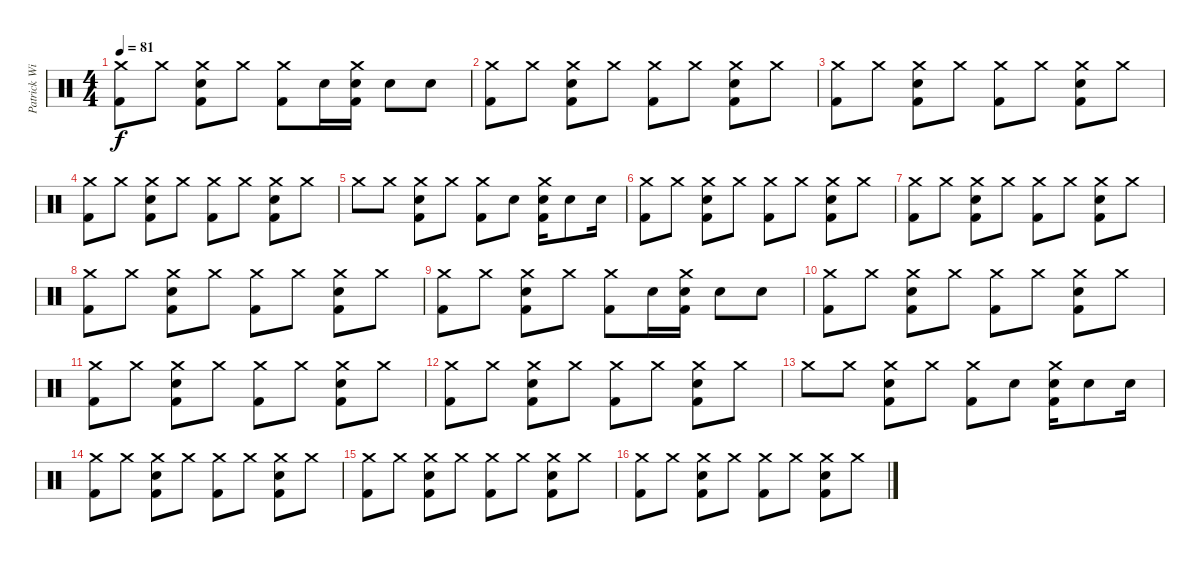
\track ("Patrick Wilson" "Patrick Wi") {instrument percussion}
\staff {score}
\articulation defaults
\ts (4 4)
\tempo 81
\clef neutral
\ks c
("Crash medium (hit)" "Kick (hit) 2").8{dy f} "Crash medium (hit)".8 ("Crash medium (hit)" "Electric Snare (hit)" "Kick (hit) 2").8 "Crash medium (hit)".8 ("Crash medium (hit)" "Kick (hit) 2").8 "Electric Snare (hit)".16 ("Crash medium (hit)" "Electric Snare (hit)" "Kick (hit) 2").16 "Electric Snare (hit)".8 "Electric Snare (hit)".8 |
("Crash medium (hit)" "Kick (hit) 2").8 "Crash medium (hit)".8 ("Crash medium (hit)" "Electric Snare (hit)" "Kick (hit) 2").8 "Crash medium (hit)".8 ("Crash medium (hit)" "Kick (hit) 2").8 "Crash medium (hit)".8 ("Crash medium (hit)" "Electric Snare (hit)" "Kick (hit) 2").8 "Crash medium (hit)".8 |
("Crash medium (hit)" "Kick (hit) 2").8 "Crash medium (hit)".8 ("Crash medium (hit)" "Electric Snare (hit)" "Kick (hit) 2").8 "Crash medium (hit)".8 ("Crash medium (hit)" "Kick (hit) 2").8 "Crash medium (hit)".8 ("Crash medium (hit)" "Electric Snare (hit)" "Kick (hit) 2").8 "Crash medium (hit)".8 |
("Crash medium (hit)" "Kick (hit) 2").8 "Crash medium (hit)".8 ("Crash medium (hit)" "Electric Snare (hit)" "Kick (hit) 2").8 "Crash medium (hit)".8 ("Crash medium (hit)" "Kick (hit) 2").8 "Crash medium (hit)".8 ("Crash medium (hit)" "Electric Snare (hit)" "Kick (hit) 2").8 "Crash medium (hit)".8 |
"Crash medium (hit)".8 "Crash medium (hit)".8 ("Crash medium (hit)" "Electric Snare (hit)" "Kick (hit) 2").8 "Crash medium (hit)".8 ("Crash medium (hit)" "Kick (hit) 2").8 "Electric Snare (hit)".8 ("Crash medium (hit)" "Electric Snare (hit)" "Kick (hit) 2").16 "Electric Snare (hit)".8 "Electric Snare (hit)".16 |
("Crash medium (hit)" "Kick (hit) 2").8 "Crash medium (hit)".8 ("Crash medium (hit)" "Electric Snare (hit)" "Kick (hit) 2").8 "Crash medium (hit)".8 ("Crash medium (hit)" "Kick (hit) 2").8 "Crash medium (hit)".8 ("Crash medium (hit)" "Electric Snare (hit)" "Kick (hit) 2").8 "Crash medium (hit)".8 |
("Crash medium (hit)" "Kick (hit) 2").8 "Crash medium (hit)".8 ("Crash medium (hit)" "Electric Snare (hit)" "Kick (hit) 2").8 "Crash medium (hit)".8 ("Crash medium (hit)" "Kick (hit) 2").8 "Crash medium (hit)".8 ("Crash medium (hit)" "Electric Snare (hit)" "Kick (hit) 2").8 "Crash medium (hit)".8 |
("Crash medium (hit)" "Kick (hit) 2").8 "Crash medium (hit)".8 ("Crash medium (hit)" "Electric Snare (hit)" "Kick (hit) 2").8 "Crash medium (hit)".8 ("Crash medium (hit)" "Kick (hit) 2").8 "Crash medium (hit)".8 ("Crash medium (hit)" "Electric Snare (hit)" "Kick (hit) 2").8 "Crash medium (hit)".8 |
("Crash medium (hit)" "Kick (hit) 2").8 "Crash medium (hit)".8 ("Crash medium (hit)" "Electric Snare (hit)" "Kick (hit) 2").8 "Crash medium (hit)".8 ("Crash medium (hit)" "Kick (hit) 2").8 "Electric Snare (hit)".16 ("Crash medium (hit)" "Electric Snare (hit)" "Kick (hit) 2").16 "Electric Snare (hit)".8 "Electric Snare (hit)".8 |
("Crash medium (hit)" "Kick (hit) 2").8 "Crash medium (hit)".8 ("Crash medium (hit)" "Electric Snare (hit)" "Kick (hit) 2").8 "Crash medium (hit)".8 ("Crash medium (hit)" "Kick (hit) 2").8 "Crash medium (hit)".8 ("Crash medium (hit)" "Electric Snare (hit)" "Kick (hit) 2").8 "Crash medium (hit)".8 |
("Crash medium (hit)" "Kick (hit) 2").8 "Crash medium (hit)".8 ("Crash medium (hit)" "Electric Snare (hit)" "Kick (hit) 2").8 "Crash medium (hit)".8 ("Crash medium (hit)" "Kick (hit) 2").8 "Crash medium (hit)".8 ("Crash medium (hit)" "Electric Snare (hit)" "Kick (hit) 2").8 "Crash medium (hit)".8 |
("Crash medium (hit)" "Kick (hit) 2").8 "Crash medium (hit)".8 ("Crash medium (hit)" "Electric Snare (hit)" "Kick (hit) 2").8 "Crash medium (hit)".8 ("Crash medium (hit)" "Kick (hit) 2").8 "Crash medium (hit)".8 ("Crash medium (hit)" "Electric Snare (hit)" "Kick (hit) 2").8 "Crash medium (hit)".8 |
"Crash medium (hit)".8 "Crash medium (hit)".8 ("Crash medium (hit)" "Electric Snare (hit)" "Kick (hit) 2").8 "Crash medium (hit)".8 ("Crash medium (hit)" "Kick (hit) 2").8 "Electric Snare (hit)".8 ("Crash medium (hit)" "Electric Snare (hit)" "Kick (hit) 2").16 "Electric Snare (hit)".8 "Electric Snare (hit)".16 |
("Crash medium (hit)" "Kick (hit) 2").8 "Crash medium (hit)".8 ("Crash medium (hit)" "Electric Snare (hit)" "Kick (hit) 2").8 "Crash medium (hit)".8 ("Crash medium (hit)" "Kick (hit) 2").8 "Crash medium (hit)".8 ("Crash medium (hit)" "Electric Snare (hit)" "Kick (hit) 2").8 "Crash medium (hit)".8 |
("Crash medium (hit)" "Kick (hit) 2").8 "Crash medium (hit)".8 ("Crash medium (hit)" "Electric Snare (hit)" "Kick (hit) 2").8 "Crash medium (hit)".8 ("Crash medium (hit)" "Kick (hit) 2").8 "Crash medium (hit)".8 ("Crash medium (hit)" "Electric Snare (hit)" "Kick (hit) 2").8 "Crash medium (hit)".8 |
("Crash medium (hit)" "Kick (hit) 2").8 "Crash medium (hit)".8 ("Crash medium (hit)" "Electric Snare (hit)" "Kick (hit) 2").8 "Crash medium (hit)".8 ("Crash medium (hit)" "Kick (hit) 2").8 "Crash medium (hit)".8 ("Crash medium (hit)" "Electric Snare (hit)" "Kick (hit) 2").8 "Crash medium (hit)".8
